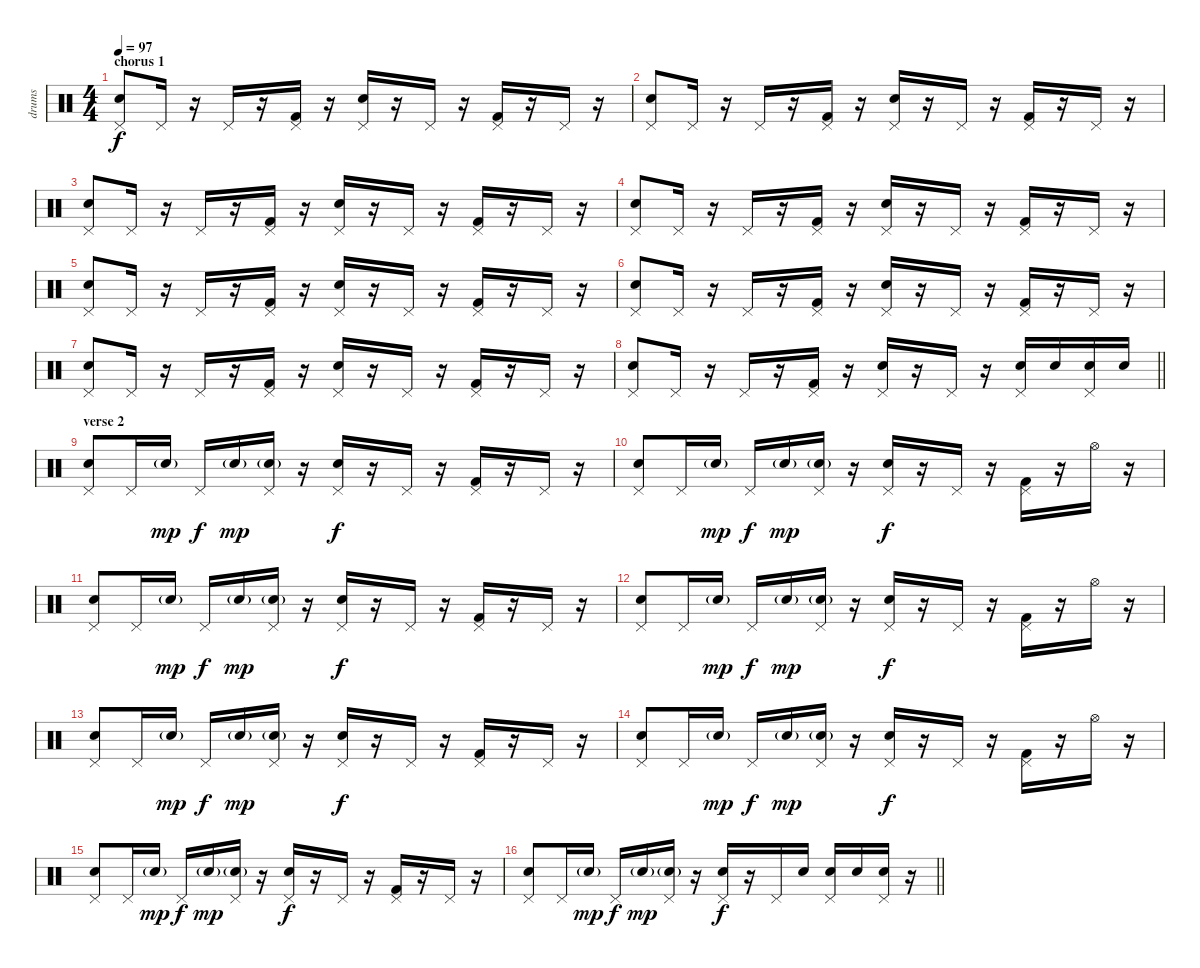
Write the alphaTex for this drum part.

\track ("drums" "drums") {instrument percussion}
\staff {score}
\articulation defaults
\ts (4 4)
\section ("" "chorus 1")
\tempo 97
\clef neutral
\ks c
("Electric Snare (hit)" "Pedal Hi-Hat (hit)").8{dy f} "Pedal Hi-Hat (hit)".16 r.16 "Pedal Hi-Hat (hit)".16 r.16 ("Kick (hit) 2" "Pedal Hi-Hat (hit)").16 r.16 ("Electric Snare (hit)" "Pedal Hi-Hat (hit)").16 r.16 "Pedal Hi-Hat (hit)".16 r.16 ("Kick (hit) 2" "Pedal Hi-Hat (hit)").16 r.16 "Pedal Hi-Hat (hit)".16 r.16 |
("Electric Snare (hit)" "Pedal Hi-Hat (hit)").8 "Pedal Hi-Hat (hit)".16 r.16 "Pedal Hi-Hat (hit)".16 r.16 ("Kick (hit) 2" "Pedal Hi-Hat (hit)").16 r.16 ("Electric Snare (hit)" "Pedal Hi-Hat (hit)").16 r.16 "Pedal Hi-Hat (hit)".16 r.16 ("Kick (hit) 2" "Pedal Hi-Hat (hit)").16 r.16 "Pedal Hi-Hat (hit)".16 r.16 |
("Electric Snare (hit)" "Pedal Hi-Hat (hit)").8 "Pedal Hi-Hat (hit)".16 r.16 "Pedal Hi-Hat (hit)".16 r.16 ("Kick (hit) 2" "Pedal Hi-Hat (hit)").16 r.16 ("Electric Snare (hit)" "Pedal Hi-Hat (hit)").16 r.16 "Pedal Hi-Hat (hit)".16 r.16 ("Kick (hit) 2" "Pedal Hi-Hat (hit)").16 r.16 "Pedal Hi-Hat (hit)".16 r.16 |
("Electric Snare (hit)" "Pedal Hi-Hat (hit)").8 "Pedal Hi-Hat (hit)".16 r.16 "Pedal Hi-Hat (hit)".16 r.16 ("Kick (hit) 2" "Pedal Hi-Hat (hit)").16 r.16 ("Electric Snare (hit)" "Pedal Hi-Hat (hit)").16 r.16 "Pedal Hi-Hat (hit)".16 r.16 ("Kick (hit) 2" "Pedal Hi-Hat (hit)").16 r.16 "Pedal Hi-Hat (hit)".16 r.16 |
("Electric Snare (hit)" "Pedal Hi-Hat (hit)").8 "Pedal Hi-Hat (hit)".16 r.16 "Pedal Hi-Hat (hit)".16 r.16 ("Kick (hit) 2" "Pedal Hi-Hat (hit)").16 r.16 ("Electric Snare (hit)" "Pedal Hi-Hat (hit)").16 r.16 "Pedal Hi-Hat (hit)".16 r.16 ("Kick (hit) 2" "Pedal Hi-Hat (hit)").16 r.16 "Pedal Hi-Hat (hit)".16 r.16 |
("Electric Snare (hit)" "Pedal Hi-Hat (hit)").8 "Pedal Hi-Hat (hit)".16 r.16 "Pedal Hi-Hat (hit)".16 r.16 ("Kick (hit) 2" "Pedal Hi-Hat (hit)").16 r.16 ("Electric Snare (hit)" "Pedal Hi-Hat (hit)").16 r.16 "Pedal Hi-Hat (hit)".16 r.16 ("Kick (hit) 2" "Pedal Hi-Hat (hit)").16 r.16 "Pedal Hi-Hat (hit)".16 r.16 |
("Electric Snare (hit)" "Pedal Hi-Hat (hit)").8 "Pedal Hi-Hat (hit)".16 r.16 "Pedal Hi-Hat (hit)".16 r.16 ("Kick (hit) 2" "Pedal Hi-Hat (hit)").16 r.16 ("Electric Snare (hit)" "Pedal Hi-Hat (hit)").16 r.16 "Pedal Hi-Hat (hit)".16 r.16 ("Kick (hit) 2" "Pedal Hi-Hat (hit)").16 r.16 "Pedal Hi-Hat (hit)".16 r.16 |
\barLineRight lightlight
("Electric Snare (hit)" "Pedal Hi-Hat (hit)").8 "Pedal Hi-Hat (hit)".16 r.16 "Pedal Hi-Hat (hit)".16 r.16 ("Kick (hit) 2" "Pedal Hi-Hat (hit)").16 r.16 ("Electric Snare (hit)" "Pedal Hi-Hat (hit)").16 r.16 "Pedal Hi-Hat (hit)".16 r.16 ("Electric Snare (hit)" "Pedal Hi-Hat (hit)").16 "Electric Snare (hit)".16 ("Electric Snare (hit)" "Pedal Hi-Hat (hit)").16 "Electric Snare (hit)".16 |
\section ("" "verse 2")
("Electric Snare (hit)" "Pedal Hi-Hat (hit)").8 "Pedal Hi-Hat (hit)".16 "Electric Snare (hit)"{g}.16{dy mp} "Pedal Hi-Hat (hit)".16{dy f} "Electric Snare (hit)"{g}.16{dy mp} ("Electric Snare (hit)"{g} "Pedal Hi-Hat (hit)").16 r.16 ("Electric Snare (hit)" "Pedal Hi-Hat (hit)").16{dy f} r.16 "Pedal Hi-Hat (hit)".16 r.16 ("Kick (hit) 2" "Pedal Hi-Hat (hit)").16 r.16 "Pedal Hi-Hat (hit)".16 r.16 |
("Electric Snare (hit)" "Pedal Hi-Hat (hit)").8 "Pedal Hi-Hat (hit)".16 "Electric Snare (hit)"{g}.16{dy mp} "Pedal Hi-Hat (hit)".16{dy f} "Electric Snare (hit)"{g}.16{dy mp} ("Electric Snare (hit)"{g} "Pedal Hi-Hat (hit)").16 r.16 ("Electric Snare (hit)" "Pedal Hi-Hat (hit)").16{dy f} r.16 "Pedal Hi-Hat (hit)".16 r.16 ("Kick (hit) 2" "Pedal Hi-Hat (hit)").16 r.16 "Hi-Hat (open)".16 r.16 |
("Electric Snare (hit)" "Pedal Hi-Hat (hit)").8 "Pedal Hi-Hat (hit)".16 "Electric Snare (hit)"{g}.16{dy mp} "Pedal Hi-Hat (hit)".16{dy f} "Electric Snare (hit)"{g}.16{dy mp} ("Electric Snare (hit)"{g} "Pedal Hi-Hat (hit)").16 r.16 ("Electric Snare (hit)" "Pedal Hi-Hat (hit)").16{dy f} r.16 "Pedal Hi-Hat (hit)".16 r.16 ("Kick (hit) 2" "Pedal Hi-Hat (hit)").16 r.16 "Pedal Hi-Hat (hit)".16 r.16 |
("Electric Snare (hit)" "Pedal Hi-Hat (hit)").8 "Pedal Hi-Hat (hit)".16 "Electric Snare (hit)"{g}.16{dy mp} "Pedal Hi-Hat (hit)".16{dy f} "Electric Snare (hit)"{g}.16{dy mp} ("Electric Snare (hit)"{g} "Pedal Hi-Hat (hit)").16 r.16 ("Electric Snare (hit)" "Pedal Hi-Hat (hit)").16{dy f} r.16 "Pedal Hi-Hat (hit)".16 r.16 ("Kick (hit) 2" "Pedal Hi-Hat (hit)").16 r.16 "Hi-Hat (open)".16 r.16 |
("Electric Snare (hit)" "Pedal Hi-Hat (hit)").8 "Pedal Hi-Hat (hit)".16 "Electric Snare (hit)"{g}.16{dy mp} "Pedal Hi-Hat (hit)".16{dy f} "Electric Snare (hit)"{g}.16{dy mp} ("Electric Snare (hit)"{g} "Pedal Hi-Hat (hit)").16 r.16 ("Electric Snare (hit)" "Pedal Hi-Hat (hit)").16{dy f} r.16 "Pedal Hi-Hat (hit)".16 r.16 ("Kick (hit) 2" "Pedal Hi-Hat (hit)").16 r.16 "Pedal Hi-Hat (hit)".16 r.16 |
("Electric Snare (hit)" "Pedal Hi-Hat (hit)").8 "Pedal Hi-Hat (hit)".16 "Electric Snare (hit)"{g}.16{dy mp} "Pedal Hi-Hat (hit)".16{dy f} "Electric Snare (hit)"{g}.16{dy mp} ("Electric Snare (hit)"{g} "Pedal Hi-Hat (hit)").16 r.16 ("Electric Snare (hit)" "Pedal Hi-Hat (hit)").16{dy f} r.16 "Pedal Hi-Hat (hit)".16 r.16 ("Kick (hit) 2" "Pedal Hi-Hat (hit)").16 r.16 "Hi-Hat (open)".16 r.16 |
("Electric Snare (hit)" "Pedal Hi-Hat (hit)").8 "Pedal Hi-Hat (hit)".16 "Electric Snare (hit)"{g}.16{dy mp} "Pedal Hi-Hat (hit)".16{dy f} "Electric Snare (hit)"{g}.16{dy mp} ("Electric Snare (hit)"{g} "Pedal Hi-Hat (hit)").16 r.16 ("Electric Snare (hit)" "Pedal Hi-Hat (hit)").16{dy f} r.16 "Pedal Hi-Hat (hit)".16 r.16 ("Kick (hit) 2" "Pedal Hi-Hat (hit)").16 r.16 "Pedal Hi-Hat (hit)".16 r.16 |
\barLineRight lightlight
("Electric Snare (hit)" "Pedal Hi-Hat (hit)").8 "Pedal Hi-Hat (hit)".16 "Electric Snare (hit)"{g}.16{dy mp} "Pedal Hi-Hat (hit)".16{dy f} "Electric Snare (hit)"{g}.16{dy mp} ("Electric Snare (hit)"{g} "Pedal Hi-Hat (hit)").16 r.16 ("Electric Snare (hit)" "Pedal Hi-Hat (hit)").16{dy f} r.16 "Pedal Hi-Hat (hit)".16 "Electric Snare (hit)".16 ("Electric Snare (hit)" "Pedal Hi-Hat (hit)").16 "Electric Snare (hit)".16 ("Electric Snare (hit)" "Pedal Hi-Hat (hit)").16 r.16
